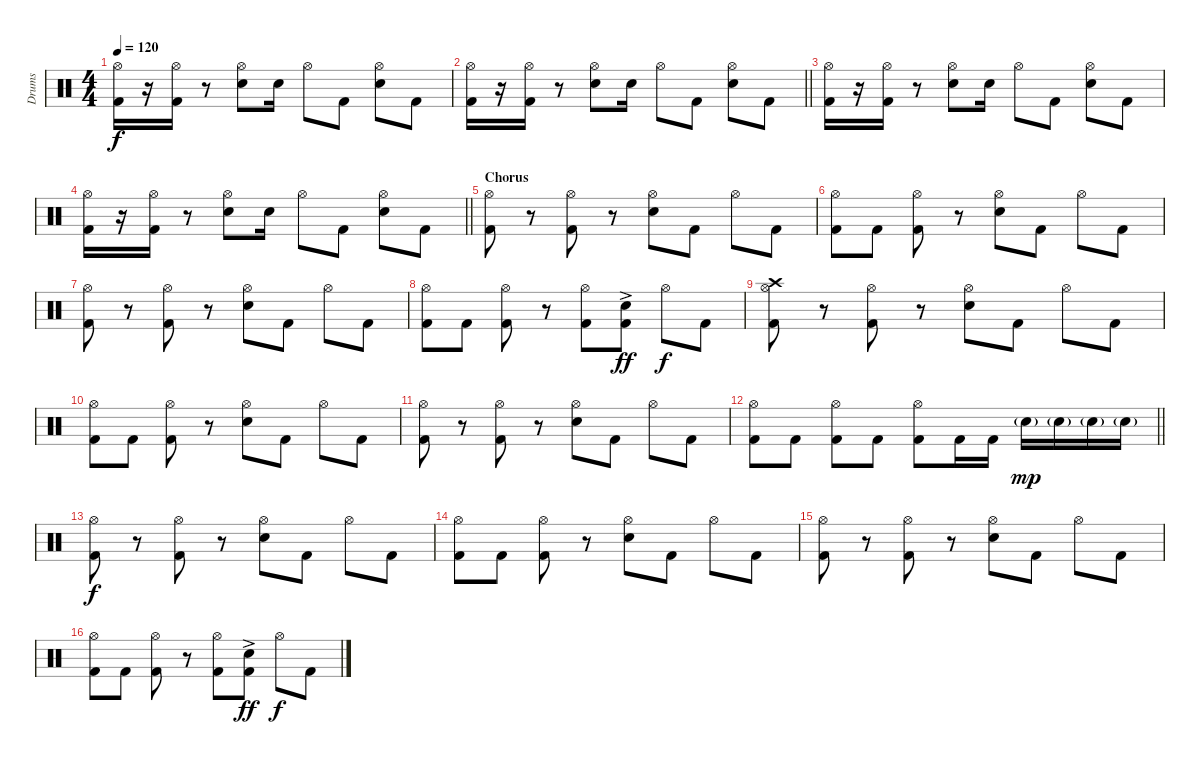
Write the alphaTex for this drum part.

\track ("Drums" "Drums") {instrument percussion}
\staff {score}
\articulation defaults
\ts (4 4)
\tempo 120
\clef neutral
\ks c
("Hi-Hat (open)" "Kick (hit) 2").16{dy f} r.16 ("Hi-Hat (open)" "Kick (hit) 2").16 r.8 ("Hi-Hat (open)" "Electric Snare (hit)").8 "Electric Snare (hit)".16 "Hi-Hat (open)".8 "Kick (hit) 2".8 ("Hi-Hat (open)" "Electric Snare (hit)").8 "Kick (hit) 2".8 |
\barLineRight lightlight
("Hi-Hat (open)" "Kick (hit) 2").16 r.16 ("Hi-Hat (open)" "Kick (hit) 2").16 r.8 ("Hi-Hat (open)" "Electric Snare (hit)").8 "Electric Snare (hit)".16 "Hi-Hat (open)".8 "Kick (hit) 2".8 ("Hi-Hat (open)" "Electric Snare (hit)").8 "Kick (hit) 2".8 |
("Hi-Hat (open)" "Kick (hit) 2").16 r.16 ("Hi-Hat (open)" "Kick (hit) 2").16 r.8 ("Hi-Hat (open)" "Electric Snare (hit)").8 "Electric Snare (hit)".16 "Hi-Hat (open)".8 "Kick (hit) 2".8 ("Hi-Hat (open)" "Electric Snare (hit)").8 "Kick (hit) 2".8 |
\barLineRight lightlight
("Hi-Hat (open)" "Kick (hit) 2").16 r.16 ("Hi-Hat (open)" "Kick (hit) 2").16 r.8 ("Hi-Hat (open)" "Electric Snare (hit)").8 "Electric Snare (hit)".16 "Hi-Hat (open)".8 "Kick (hit) 2".8 ("Hi-Hat (open)" "Electric Snare (hit)").8 "Kick (hit) 2".8 |
\section ("" "Chorus")
("Hi-Hat (open)" "Kick (hit) 2").8 r.8 ("Hi-Hat (open)" "Kick (hit) 2").8 r.8 ("Hi-Hat (open)" "Snare (hit) 2").8 "Kick (hit) 2".8 "Hi-Hat (open)".8 "Kick (hit) 2".8 |
("Hi-Hat (open)" "Kick (hit) 2").8 "Kick (hit) 2".8 ("Hi-Hat (open)" "Kick (hit) 2").8 r.8 ("Hi-Hat (open)" "Snare (hit) 2").8 "Kick (hit) 2".8 "Hi-Hat (open)".8 "Kick (hit) 2".8 |
("Hi-Hat (open)" "Kick (hit) 2").8 r.8 ("Hi-Hat (open)" "Kick (hit) 2").8 r.8 ("Hi-Hat (open)" "Snare (hit) 2").8 "Kick (hit) 2".8 "Hi-Hat (open)".8 "Kick (hit) 2".8 |
("Hi-Hat (open)" "Kick (hit) 2").8 "Kick (hit) 2".8 ("Hi-Hat (open)" "Kick (hit) 2").8 r.8 ("Hi-Hat (open)" "Kick (hit) 2").8 ("Snare (hit) 2"{ac} "Kick (hit) 2").8{dy ff} "Hi-Hat (open)".8{dy f} "Kick (hit) 2".8 |
("Crash high (hit)" "Hi-Hat (open)" "Kick (hit) 2").8 r.8 ("Hi-Hat (open)" "Kick (hit) 2").8 r.8 ("Hi-Hat (open)" "Snare (hit) 2").8 "Kick (hit) 2".8 "Hi-Hat (open)".8 "Kick (hit) 2".8 |
("Hi-Hat (open)" "Kick (hit) 2").8 "Kick (hit) 2".8 ("Hi-Hat (open)" "Kick (hit) 2").8 r.8 ("Hi-Hat (open)" "Snare (hit) 2").8 "Kick (hit) 2".8 "Hi-Hat (open)".8 "Kick (hit) 2".8 |
("Hi-Hat (open)" "Kick (hit) 2").8 r.8 ("Hi-Hat (open)" "Kick (hit) 2").8 r.8 ("Hi-Hat (open)" "Snare (hit) 2").8 "Kick (hit) 2".8 "Hi-Hat (open)".8 "Kick (hit) 2".8 |
\barLineRight lightlight
("Hi-Hat (open)" "Kick (hit) 2").8 "Kick (hit) 2".8 ("Hi-Hat (open)" "Kick (hit) 2").8 "Kick (hit) 2".8 ("Hi-Hat (open)" "Kick (hit) 2").8 "Kick (hit) 2".16 "Kick (hit) 2".16 "Snare (hit) 2"{g}.16{dy mp} "Snare (hit) 2"{g}.16 "Electric Snare (hit)"{g}.16 "Electric Snare (hit)"{g}.16 |
("Hi-Hat (open)" "Kick (hit) 2").8{dy f} r.8 ("Hi-Hat (open)" "Kick (hit) 2").8 r.8 ("Hi-Hat (open)" "Snare (hit) 2").8 "Kick (hit) 2".8 "Hi-Hat (open)".8 "Kick (hit) 2".8 |
("Hi-Hat (open)" "Kick (hit) 2").8 "Kick (hit) 2".8 ("Hi-Hat (open)" "Kick (hit) 2").8 r.8 ("Hi-Hat (open)" "Snare (hit) 2").8 "Kick (hit) 2".8 "Hi-Hat (open)".8 "Kick (hit) 2".8 |
("Hi-Hat (open)" "Kick (hit) 2").8 r.8 ("Hi-Hat (open)" "Kick (hit) 2").8 r.8 ("Hi-Hat (open)" "Snare (hit) 2").8 "Kick (hit) 2".8 "Hi-Hat (open)".8 "Kick (hit) 2".8 |
("Hi-Hat (open)" "Kick (hit) 2").8 "Kick (hit) 2".8 ("Hi-Hat (open)" "Kick (hit) 2").8 r.8 ("Hi-Hat (open)" "Kick (hit) 2").8 ("Snare (hit) 2"{ac} "Kick (hit) 2").8{dy ff} "Hi-Hat (open)".8{dy f} "Kick (hit) 2".8
